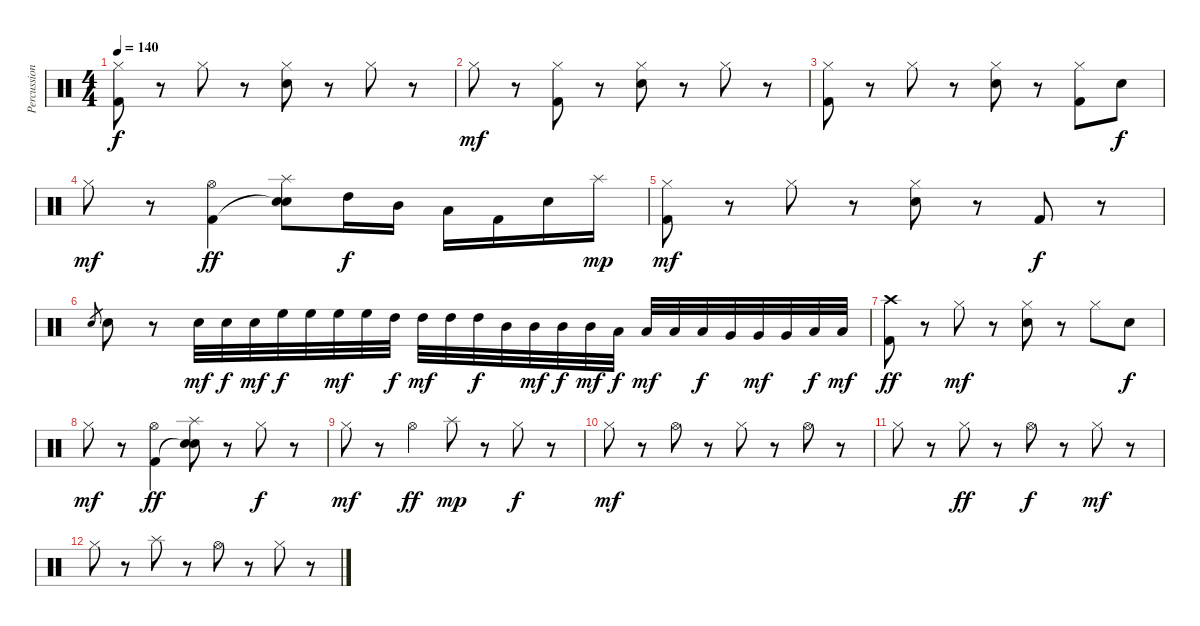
\track ("Percussion" "Percussion") {instrument percussion}
\staff {score}
\articulation defaults
\ts (4 4)
\tempo 140
\clef neutral
\ks c
("Hi-Hat (closed)" "Kick (hit) 2").8{dy f} r.8 "Hi-Hat (closed)".8 r.8 ("Hi-Hat (closed)" "Electric Snare (hit)").8 r.8 "Hi-Hat (closed)".8 r.8 |
"Hi-Hat (closed)".8{dy mf} r.8 ("Hi-Hat (closed)" "Kick (hit) 2").8 r.8 ("Hi-Hat (closed)" "Electric Snare (hit)").8 r.8 "Hi-Hat (closed)".8 r.8 |
("Hi-Hat (closed)" "Kick (hit) 2").8 r.8 "Hi-Hat (closed)".8 r.8 ("Hi-Hat (closed)" "Electric Snare (hit)").8 r.8 ("Hi-Hat (closed)" "Kick (hit) 2").8 "Electric Snare (hit)".8{dy f} |
"Hi-Hat (closed)".8{dy mf} r.8 ("Hi-Hat (open)" "Kick (hit) 2").4{dy ff} ("Splash (hit)" "Electric Snare (hit)"{t} "Electric Snare (hit)").8 "High Tom (hit)".16{dy f} "Mid Tom (hit)".16 "Low Tom (hit)".16 "Kick (hit) 2".16 "Electric Snare (hit)".16 "Splash (hit)".16{dy mp} |
("Hi-Hat (closed)" "Kick (hit) 2").8{dy mf} r.8 "Hi-Hat (closed)".8 r.8 ("Hi-Hat (closed)" "Electric Snare (hit)").8 r.8 "Kick (hit) 2".8{dy f} r.8 |
"Electric Snare (hit)".8{gr} "Electric Snare (hit)".8 r.8 "Electric Snare (hit)".32{dy mf} "Electric Snare (hit)".32{dy f} "Electric Snare (hit)".32{dy mf} "High Floor Tom (hit)".32{dy f} "High Floor Tom (hit)".32 "High Floor Tom (hit)".32{dy mf} "High Floor Tom (hit)".32 "High Tom (hit)".32{dy f} "High Tom (hit)".32{dy mf} "High Tom (hit)".32 "High Tom (hit)".32{dy f} "Mid Tom (hit)".32 "Mid Tom (hit)".32{dy mf} "Mid Tom (hit)".32{dy f} "Mid Tom (hit)".32{dy mf} "Low Tom (hit)".32{dy f} "Low Tom (hit)".32{dy mf} "Low Tom (hit)".32 "Low Tom (hit)".32{dy f} "Very Low Tom (hit)".32 "Very Low Tom (hit)".32{dy mf} "Very Low Tom (hit)".32 "Low Floor Tom (hit)".32{dy f} "Low Floor Tom (hit)".32{dy mf} |
("Crash high (hit)" "Kick (hit) 2").8{dy ff} r.8 "Hi-Hat (closed)".8{dy mf} r.8 ("Hi-Hat (closed)" "Electric Snare (hit)").8 r.8 "Hi-Hat (closed)".8 "Electric Snare (hit)".8{dy f} |
"Hi-Hat (closed)".8{dy mf} r.8 ("Hi-Hat (open)" "Kick (hit) 2").4{dy ff} ("Splash (hit)" "Electric Snare (hit)"{t} "Electric Snare (hit)").8 r.8 "Hi-Hat (closed)".8{dy f} r.8 |
"Hi-Hat (closed)".8{dy mf} r.8 "Hi-Hat (open)".4{dy ff} "Splash (hit)".8{dy mp} r.8 "Hi-Hat (closed)".8{dy f} r.8 |
"Hi-Hat (closed)".8{dy mf} r.8 "Hi-Hat (open)".8 r.8 "Hi-Hat (closed)".8 r.8 "Hi-Hat (open)".8 r.8 |
"Hi-Hat (closed)".8 r.8 "Hi-Hat (closed)".8{dy ff} r.8 "Hi-Hat (open)".8{dy f} r.8 "Hi-Hat (closed)".8{dy mf} r.8 |
"Hi-Hat (closed)".8 r.8 "Splash (hit)".8 r.8 "Hi-Hat (open)".8 r.8 "Hi-Hat (closed)".8 r.8
